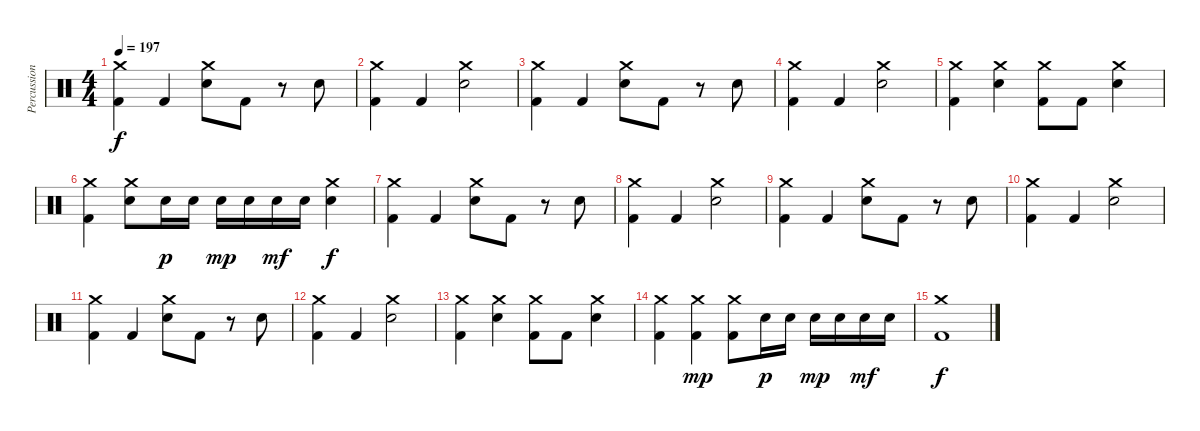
\track ("Percussion" "Percussion") {instrument percussion}
\staff {score}
\articulation defaults
\ts (4 4)
\tempo 197
\clef neutral
\ks c
("Crash medium (hit)" "Kick (hit) 2").4{dy f} "Kick (hit) 2".4 ("Crash medium (hit)" "Snare (hit) 2").8 "Kick (hit) 2".8 r.8 "Snare (hit) 2".8 |
("Crash medium (hit)" "Kick (hit) 2").4 "Kick (hit) 2".4 ("Crash medium (hit)" "Snare (hit) 2").2 |
("Crash medium (hit)" "Kick (hit) 2").4 "Kick (hit) 2".4 ("Crash medium (hit)" "Snare (hit) 2").8 "Kick (hit) 2".8 r.8 "Snare (hit) 2".8 |
("Crash medium (hit)" "Kick (hit) 2").4 "Kick (hit) 2".4 ("Crash medium (hit)" "Snare (hit) 2").2 |
("Crash medium (hit)" "Kick (hit) 2").4 ("Crash medium (hit)" "Snare (hit) 2").4 ("Crash medium (hit)" "Kick (hit) 2").8 "Kick (hit) 2".8 ("Crash medium (hit)" "Snare (hit) 2").4 |
("Crash medium (hit)" "Kick (hit) 2").4 ("Crash medium (hit)" "Snare (hit) 2").8 "Snare (hit) 2".16{dy p} "Snare (hit) 2".16 "Snare (hit) 2".16{dy mp} "Snare (hit) 2".16 "Snare (hit) 2".16{dy mf} "Snare (hit) 2".16 ("Crash medium (hit)" "Snare (hit) 2").4{dy f} |
("Crash medium (hit)" "Kick (hit) 2").4 "Kick (hit) 2".4 ("Crash medium (hit)" "Snare (hit) 2").8 "Kick (hit) 2".8 r.8 "Snare (hit) 2".8 |
("Crash medium (hit)" "Kick (hit) 2").4 "Kick (hit) 2".4 ("Crash medium (hit)" "Snare (hit) 2").2 |
("Crash medium (hit)" "Kick (hit) 2").4 "Kick (hit) 2".4 ("Crash medium (hit)" "Snare (hit) 2").8 "Kick (hit) 2".8 r.8 "Snare (hit) 2".8 |
("Crash medium (hit)" "Kick (hit) 2").4 "Kick (hit) 2".4 ("Crash medium (hit)" "Snare (hit) 2").2 |
("Crash medium (hit)" "Kick (hit) 2").4 "Kick (hit) 2".4 ("Crash medium (hit)" "Snare (hit) 2").8 "Kick (hit) 2".8 r.8 "Snare (hit) 2".8 |
("Crash medium (hit)" "Kick (hit) 2").4 "Kick (hit) 2".4 ("Crash medium (hit)" "Snare (hit) 2").2 |
("Crash medium (hit)" "Kick (hit) 2").4 ("Crash medium (hit)" "Snare (hit) 2").4 ("Crash medium (hit)" "Kick (hit) 2").8 "Kick (hit) 2".8 ("Crash medium (hit)" "Snare (hit) 2").4 |
("Crash medium (hit)" "Kick (hit) 2").4 ("Crash medium (hit)" "Kick (hit) 2").4{dy mp} ("Crash medium (hit)" "Kick (hit) 2").8 "Snare (hit) 2".16{dy p} "Snare (hit) 2".16 "Snare (hit) 2".16{dy mp} "Snare (hit) 2".16 "Snare (hit) 2".16{dy mf} "Snare (hit) 2".16 |
("Crash medium (hit)" "Kick (hit) 2").1{dy f}
